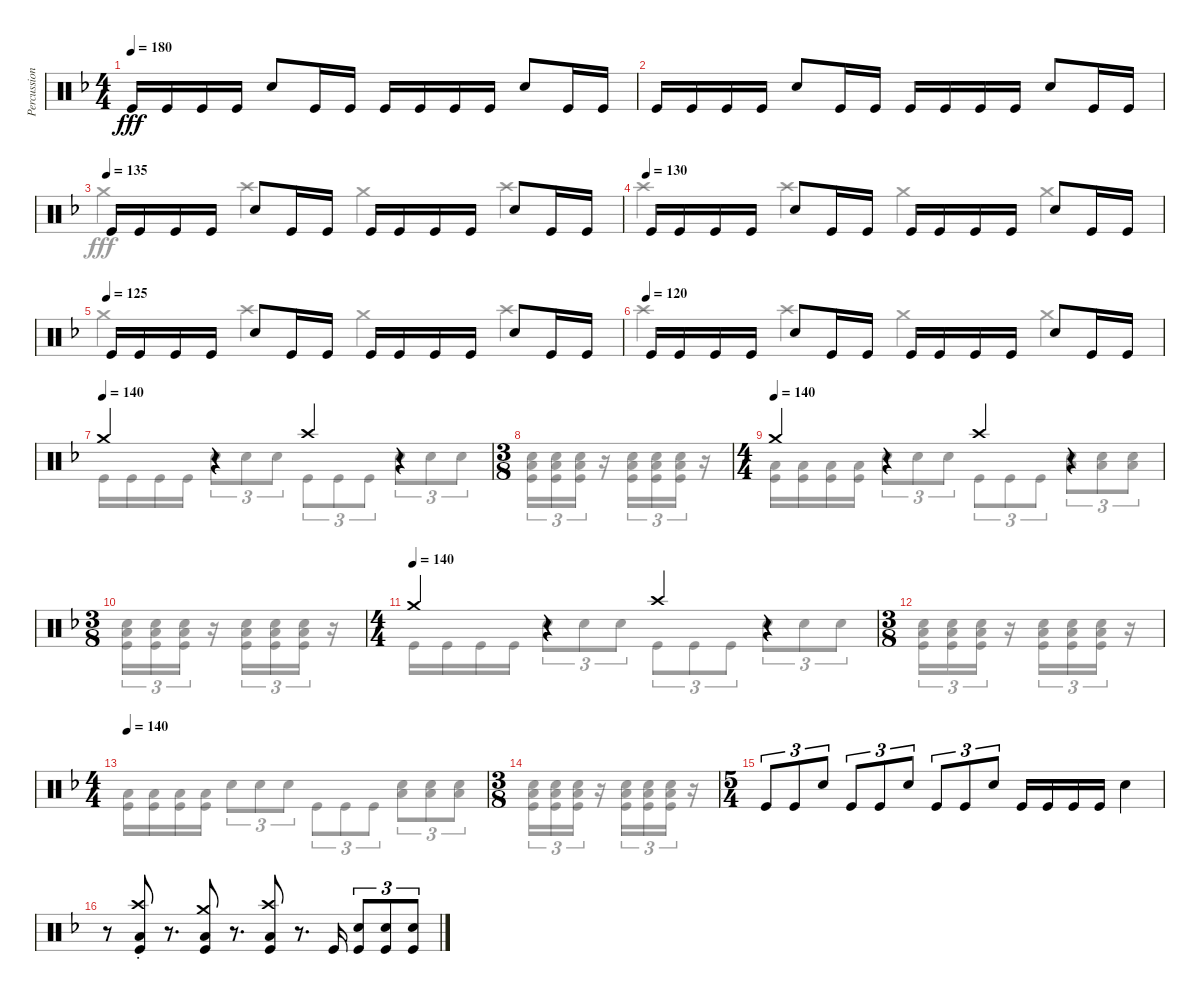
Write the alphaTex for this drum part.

\track ("Percussion" "Percussion") {instrument percussion}
\staff {score}
\articulation defaults
\voice
\ts (4 4)
\tempo 180
\clef neutral
\ks dminor "Kick (hit)".16{dy fff} "Kick (hit)".16 "Kick (hit)".16 "Kick (hit)".16 "Electric Snare (hit)".8 "Kick (hit)".16 "Kick (hit)".16 "Kick (hit)".16 "Kick (hit)".16 "Kick (hit)".16 "Kick (hit)".16 "Electric Snare (hit)".8 "Kick (hit)".16 "Kick (hit)".16
|
"Kick (hit)".16 "Kick (hit)".16 "Kick (hit)".16 "Kick (hit)".16 "Electric Snare (hit)".8 "Kick (hit)".16 "Kick (hit)".16 "Kick (hit)".16 "Kick (hit)".16 "Kick (hit)".16 "Kick (hit)".16 "Electric Snare (hit)".8 "Kick (hit)".16 "Kick (hit)".16 |
\tempo (135)
"Kick (hit)".16 "Kick (hit)".16 "Kick (hit)".16 "Kick (hit)".16 "Electric Snare (hit)".8 "Kick (hit)".16 "Kick (hit)".16 "Kick (hit)".16 "Kick (hit)".16 "Kick (hit)".16 "Kick (hit)".16 "Electric Snare (hit)".8 "Kick (hit)".16 "Kick (hit)".16 |
\tempo (130)
"Kick (hit)".16 "Kick (hit)".16 "Kick (hit)".16 "Kick (hit)".16 "Electric Snare (hit)".8 "Kick (hit)".16 "Kick (hit)".16 "Kick (hit)".16 "Kick (hit)".16 "Kick (hit)".16 "Kick (hit)".16 "Electric Snare (hit)".8 "Kick (hit)".16 "Kick (hit)".16 |
\tempo (125)
"Kick (hit)".16 "Kick (hit)".16 "Kick (hit)".16 "Kick (hit)".16 "Electric Snare (hit)".8 "Kick (hit)".16 "Kick (hit)".16 "Kick (hit)".16 "Kick (hit)".16 "Kick (hit)".16 "Kick (hit)".16 "Electric Snare (hit)".8 "Kick (hit)".16 "Kick (hit)".16 |
\tempo (120)
"Kick (hit)".16 "Kick (hit)".16 "Kick (hit)".16 "Kick (hit)".16 "Electric Snare (hit)".8 "Kick (hit)".16 "Kick (hit)".16 "Kick (hit)".16 "Kick (hit)".16 "Kick (hit)".16 "Kick (hit)".16 "Electric Snare (hit)".8 "Kick (hit)".16 "Kick (hit)".16 |
\tempo (140)
"Crash medium (hit)".4 r.4 "Crash high (hit)".4 r.4 |
\ts (3 8)
|
\ts (4 4)
\tempo (140)
"Crash medium (hit)".4 r.4 "Crash high (hit)".4 r.4 |
\ts (3 8)
|
\ts (4 4)
\tempo (140)
"Crash medium (hit)".4 r.4 "Crash high (hit)".4 r.4 |
\ts (3 8)
|
\ts (4 4)
\tempo 140
|
\ts (3 8)
|
\ts (5 4)
"Kick (hit)".8{tu (3 2)} "Kick (hit)".8{tu (3 2)} "Electric Snare (hit)".8{tu (3 2)} "Kick (hit)".8{tu (3 2)} "Kick (hit)".8{tu (3 2)} "Electric Snare (hit)".8{tu (3 2)} "Kick (hit)".8{tu (3 2)} "Kick (hit)".8{tu (3 2)} "Electric Snare (hit)".8{tu (3 2)} "Kick (hit)".16 "Kick (hit)".16 "Kick (hit)".16 "Kick (hit)".16 "Electric Snare (hit)".4 |
r.8 ("Crash high (hit)"{st} "Low Floor Tom (hit)" "Kick (hit)").8 r.8{d} ("Crash medium (hit)" "Low Tom (hit)" "Kick (hit)").8 r.8{d} ("Crash high (hit)" "Low Floor Tom (hit)" "Kick (hit)").8 r.8{d} "Kick (hit)".16 ("Electric Snare (hit)" "Kick (hit)").8{tu (3 2)} ("Electric Snare (hit)" "Kick (hit)").8{tu (3 2)} ("Electric Snare (hit)" "Kick (hit)").8{tu (3 2)}
\voice
\clef neutral
\ottava regular
\simile none
\ks dminor
|
|
"Crash medium (hit)".4 "Crash high (hit)".4 "Crash medium (hit)".4 "Crash high (hit)".4 |
"Crash high (hit)".4 "Crash high (hit)".4 "Crash medium (hit)".4 "Crash medium (hit)".4 |
"Crash medium (hit)".4 "Crash high (hit)".4 "Crash medium (hit)".4 "Crash high (hit)".4 |
"Crash high (hit)".4 "Crash high (hit)".4 "Crash medium (hit)".4 "Crash medium (hit)".4 |
"Kick (hit)".16 "Kick (hit)".16 "Kick (hit)".16 "Kick (hit)".16 "Electric Snare (hit)".8{tu (3 2)} "Electric Snare (hit)".8{tu (3 2)} "Electric Snare (hit)".8{tu (3 2)} "Kick (hit)".8{tu (3 2)} "Kick (hit)".8{tu (3 2)} "Kick (hit)".8{tu (3 2)} "Electric Snare (hit)".8{tu (3 2)} "Electric Snare (hit)".8{tu (3 2)} "Electric Snare (hit)".8{tu (3 2)} |
("Low Floor Tom (hit)" "Electric Snare (hit)" "Kick (hit)").16{tu (3 2)} ("Low Floor Tom (hit)" "Electric Snare (hit)" "Kick (hit)").16{tu (3 2)} ("Low Floor Tom (hit)" "Electric Snare (hit)" "Kick (hit)").16{tu (3 2)} r.16 ("Low Tom (hit)" "Electric Snare (hit)" "Kick (hit)").16{tu (3 2)} ("Low Tom (hit)" "Electric Snare (hit)" "Kick (hit)").16{tu (3 2)} ("Low Tom (hit)" "Electric Snare (hit)" "Kick (hit)").16{tu (3 2)} r.16 |
("Low Floor Tom (hit)" "Kick (hit)").16 ("Low Floor Tom (hit)" "Kick (hit)").16 ("Low Tom (hit)" "Kick (hit)").16 ("Low Tom (hit)" "Kick (hit)").16 "Electric Snare (hit)".8{tu (3 2)} "Electric Snare (hit)".8{tu (3 2)} "Electric Snare (hit)".8{tu (3 2)} "Kick (hit)".8{tu (3 2)} "Kick (hit)".8{tu (3 2)} "Kick (hit)".8{tu (3 2)} ("Low Floor Tom (hit)" "Electric Snare (hit)").8{tu (3 2)} ("Low Floor Tom (hit)" "Electric Snare (hit)").8{tu (3 2)} ("Low Floor Tom (hit)" "Electric Snare (hit)").8{tu (3 2)} |
("Low Floor Tom (hit)" "Electric Snare (hit)" "Kick (hit)").16{tu (3 2)} ("Low Floor Tom (hit)" "Electric Snare (hit)" "Kick (hit)").16{tu (3 2)} ("Low Floor Tom (hit)" "Electric Snare (hit)" "Kick (hit)").16{tu (3 2)} r.16 ("Low Tom (hit)" "Electric Snare (hit)" "Kick (hit)").16{tu (3 2)} ("Low Tom (hit)" "Electric Snare (hit)" "Kick (hit)").16{tu (3 2)} ("Low Tom (hit)" "Electric Snare (hit)" "Kick (hit)").16{tu (3 2)} r.16 |
"Kick (hit)".16 "Kick (hit)".16 "Kick (hit)".16 "Kick (hit)".16 "Electric Snare (hit)".8{tu (3 2)} "Electric Snare (hit)".8{tu (3 2)} "Electric Snare (hit)".8{tu (3 2)} "Kick (hit)".8{tu (3 2)} "Kick (hit)".8{tu (3 2)} "Kick (hit)".8{tu (3 2)} "Electric Snare (hit)".8{tu (3 2)} "Electric Snare (hit)".8{tu (3 2)} "Electric Snare (hit)".8{tu (3 2)} |
("Low Floor Tom (hit)" "Electric Snare (hit)" "Kick (hit)").16{tu (3 2)} ("Low Floor Tom (hit)" "Electric Snare (hit)" "Kick (hit)").16{tu (3 2)} ("Low Floor Tom (hit)" "Electric Snare (hit)" "Kick (hit)").16{tu (3 2)} r.16 ("Low Tom (hit)" "Electric Snare (hit)" "Kick (hit)").16{tu (3 2)} ("Low Tom (hit)" "Electric Snare (hit)" "Kick (hit)").16{tu (3 2)} ("Low Tom (hit)" "Electric Snare (hit)" "Kick (hit)").16{tu (3 2)} r.16 |
("Low Floor Tom (hit)" "Kick (hit)").16 ("Low Floor Tom (hit)" "Kick (hit)").16 ("Low Tom (hit)" "Kick (hit)").16 ("Low Tom (hit)" "Kick (hit)").16 "Electric Snare (hit)".8{tu (3 2)} "Electric Snare (hit)".8{tu (3 2)} "Electric Snare (hit)".8{tu (3 2)} "Kick (hit)".8{tu (3 2)} "Kick (hit)".8{tu (3 2)} "Kick (hit)".8{tu (3 2)} ("Low Floor Tom (hit)" "Electric Snare (hit)").8{tu (3 2)} ("Low Floor Tom (hit)" "Electric Snare (hit)").8{tu (3 2)} ("Low Floor Tom (hit)" "Electric Snare (hit)").8{tu (3 2)} |
("Low Floor Tom (hit)" "Electric Snare (hit)" "Kick (hit)").16{tu (3 2)} ("Low Floor Tom (hit)" "Electric Snare (hit)" "Kick (hit)").16{tu (3 2)} ("Low Floor Tom (hit)" "Electric Snare (hit)" "Kick (hit)").16{tu (3 2)} r.16 ("Low Tom (hit)" "Electric Snare (hit)" "Kick (hit)").16{tu (3 2)} ("Low Tom (hit)" "Electric Snare (hit)" "Kick (hit)").16{tu (3 2)} ("Low Tom (hit)" "Electric Snare (hit)" "Kick (hit)").16{tu (3 2)} r.16 |
|
